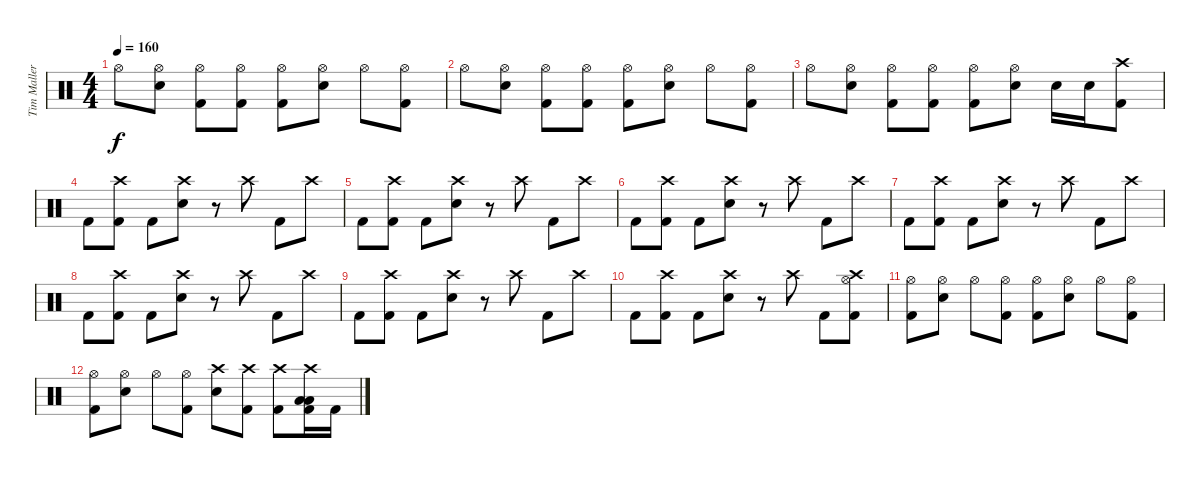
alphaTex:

\track ("Tim Mallere" "Tim Maller") {instrument percussion}
\staff {score}
\articulation defaults
\ts (4 4)
\tempo 160
\clef neutral
\ks c "Hi-Hat (open)".8{dy f}
("Hi-Hat (open)" "Electric Snare (hit)").8 ("Hi-Hat (open)" "Kick (hit) 2").8 ("Hi-Hat (open)" "Kick (hit) 2").8 ("Hi-Hat (open)" "Kick (hit) 2").8 ("Hi-Hat (open)" "Electric Snare (hit)").8 "Hi-Hat (open)".8 ("Hi-Hat (open)" "Kick (hit) 2").8 |
"Hi-Hat (open)".8 ("Hi-Hat (open)" "Electric Snare (hit)").8 ("Hi-Hat (open)" "Kick (hit) 2").8 ("Hi-Hat (open)" "Kick (hit) 2").8 ("Hi-Hat (open)" "Kick (hit) 2").8 ("Hi-Hat (open)" "Electric Snare (hit)").8 "Hi-Hat (open)".8 ("Hi-Hat (open)" "Kick (hit) 2").8 |
"Hi-Hat (open)".8 ("Hi-Hat (open)" "Electric Snare (hit)").8 ("Hi-Hat (open)" "Kick (hit) 2").8 ("Hi-Hat (open)" "Kick (hit) 2").8 ("Hi-Hat (open)" "Kick (hit) 2").8 ("Hi-Hat (open)" "Electric Snare (hit)").8 "Electric Snare (hit)".16 "Electric Snare (hit)".16 ("Crash high (hit)" "Kick (hit) 2").8 |
"Kick (hit) 2".8 ("Crash high (hit)" "Kick (hit) 2").8 "Kick (hit) 2".8 ("Crash high (hit)" "Electric Snare (hit)").8 r.8 "Crash high (hit)".8 "Kick (hit) 2".8 "Crash high (hit)".8 |
"Kick (hit) 2".8 ("Crash high (hit)" "Kick (hit) 2").8 "Kick (hit) 2".8 ("Crash high (hit)" "Electric Snare (hit)").8 r.8 "Crash high (hit)".8 "Kick (hit) 2".8 "Crash high (hit)".8 |
"Kick (hit) 2".8 ("Crash high (hit)" "Kick (hit) 2").8 "Kick (hit) 2".8 ("Crash high (hit)" "Electric Snare (hit)").8 r.8 "Crash high (hit)".8 "Kick (hit) 2".8 "Crash high (hit)".8 |
"Kick (hit) 2".8 ("Crash high (hit)" "Kick (hit) 2").8 "Kick (hit) 2".8 ("Crash high (hit)" "Electric Snare (hit)").8 r.8 "Crash high (hit)".8 "Kick (hit) 2".8 "Crash high (hit)".8 |
"Kick (hit) 2".8 ("Crash high (hit)" "Kick (hit) 2").8 "Kick (hit) 2".8 ("Crash high (hit)" "Electric Snare (hit)").8 r.8 "Crash high (hit)".8 "Kick (hit) 2".8 "Crash high (hit)".8 |
"Kick (hit) 2".8 ("Crash high (hit)" "Kick (hit) 2").8 "Kick (hit) 2".8 ("Crash high (hit)" "Electric Snare (hit)").8 r.8 "Crash high (hit)".8 "Kick (hit) 2".8 "Crash high (hit)".8 |
"Kick (hit) 2".8 ("Crash high (hit)" "Kick (hit) 2").8 "Kick (hit) 2".8 ("Crash high (hit)" "Electric Snare (hit)").8 r.8 "Crash high (hit)".8 "Kick (hit) 2".8 ("Crash high (hit)" "Hi-Hat (open)" "Kick (hit) 2").8 |
("Hi-Hat (open)" "Kick (hit) 2").8 ("Hi-Hat (open)" "Electric Snare (hit)").8 "Hi-Hat (open)".8 ("Hi-Hat (open)" "Kick (hit) 2").8 ("Hi-Hat (open)" "Kick (hit) 2").8 ("Hi-Hat (open)" "Electric Snare (hit)").8 "Hi-Hat (open)".8 ("Hi-Hat (open)" "Kick (hit) 2").8 |
("Hi-Hat (open)" "Kick (hit) 2").8 ("Hi-Hat (open)" "Electric Snare (hit)").8 "Hi-Hat (open)".8 ("Hi-Hat (open)" "Kick (hit) 2").8 ("Crash high (hit)" "Electric Snare (hit)").8 ("Crash high (hit)" "Kick (hit) 2").8 ("Crash high (hit)" "Kick (hit) 2").8 ("Crash high (hit)" "Low Floor Tom (hit)" "Low Tom (hit)" "Kick (hit) 2").16 "Kick (hit) 2".16
